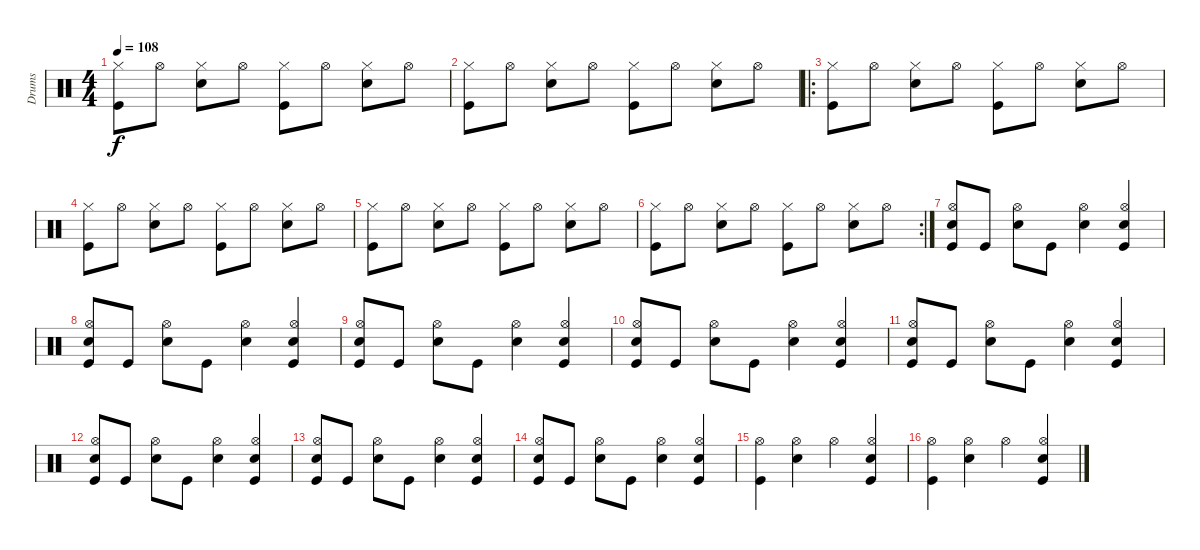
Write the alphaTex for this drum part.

\track ("Drums" "Drums") {instrument percussion}
\staff {score}
\articulation defaults
\ts (4 4)
\tempo 108
\clef neutral
\ks c
("Hi-Hat (closed)" "Kick (hit)").8{dy f} "Hi-Hat (open)".8 ("Hi-Hat (closed)" "Electric Snare (hit)").8 "Hi-Hat (open)".8 ("Hi-Hat (closed)" "Kick (hit)").8 "Hi-Hat (open)".8 ("Hi-Hat (closed)" "Electric Snare (hit)").8 "Hi-Hat (open)".8 |
("Hi-Hat (closed)" "Kick (hit)").8 "Hi-Hat (open)".8 ("Hi-Hat (closed)" "Electric Snare (hit)").8 "Hi-Hat (open)".8 ("Hi-Hat (closed)" "Kick (hit)").8 "Hi-Hat (open)".8 ("Hi-Hat (closed)" "Electric Snare (hit)").8 "Hi-Hat (open)".8 |
\ro
("Hi-Hat (closed)" "Kick (hit)").8 "Hi-Hat (open)".8 ("Hi-Hat (closed)" "Electric Snare (hit)").8 "Hi-Hat (open)".8 ("Hi-Hat (closed)" "Kick (hit)").8 "Hi-Hat (open)".8 ("Hi-Hat (closed)" "Electric Snare (hit)").8 "Hi-Hat (open)".8 |
("Hi-Hat (closed)" "Kick (hit)").8 "Hi-Hat (open)".8 ("Hi-Hat (closed)" "Electric Snare (hit)").8 "Hi-Hat (open)".8 ("Hi-Hat (closed)" "Kick (hit)").8 "Hi-Hat (open)".8 ("Hi-Hat (closed)" "Electric Snare (hit)").8 "Hi-Hat (open)".8 |
("Hi-Hat (closed)" "Kick (hit)").8 "Hi-Hat (open)".8 ("Hi-Hat (closed)" "Electric Snare (hit)").8 "Hi-Hat (open)".8 ("Hi-Hat (closed)" "Kick (hit)").8 "Hi-Hat (open)".8 ("Hi-Hat (closed)" "Electric Snare (hit)").8 "Hi-Hat (open)".8 |
\rc 2
("Hi-Hat (closed)" "Kick (hit)").8 "Hi-Hat (open)".8 ("Hi-Hat (closed)" "Electric Snare (hit)").8 "Hi-Hat (open)".8 ("Hi-Hat (closed)" "Kick (hit)").8 "Hi-Hat (open)".8 ("Hi-Hat (closed)" "Electric Snare (hit)").8 "Hi-Hat (open)".8 |
("Hi-Hat (open)" "Snare (hit) 2" "Kick (hit)").8 "Kick (hit)".8 ("Hi-Hat (open)" "Snare (hit) 2").8 "Kick (hit)".8 ("Hi-Hat (open)" "Snare (hit) 2").4 ("Hi-Hat (open)" "Snare (hit) 2" "Kick (hit)").4 |
("Hi-Hat (open)" "Snare (hit) 2" "Kick (hit)").8 "Kick (hit)".8 ("Hi-Hat (open)" "Snare (hit) 2").8 "Kick (hit)".8 ("Hi-Hat (open)" "Snare (hit) 2").4 ("Hi-Hat (open)" "Snare (hit) 2" "Kick (hit)").4 |
("Hi-Hat (open)" "Snare (hit) 2" "Kick (hit)").8 "Kick (hit)".8 ("Hi-Hat (open)" "Snare (hit) 2").8 "Kick (hit)".8 ("Hi-Hat (open)" "Snare (hit) 2").4 ("Hi-Hat (open)" "Snare (hit) 2" "Kick (hit)").4 |
("Hi-Hat (open)" "Snare (hit) 2" "Kick (hit)").8 "Kick (hit)".8 ("Hi-Hat (open)" "Snare (hit) 2").8 "Kick (hit)".8 ("Hi-Hat (open)" "Snare (hit) 2").4 ("Hi-Hat (open)" "Snare (hit) 2" "Kick (hit)").4 |
("Hi-Hat (open)" "Snare (hit) 2" "Kick (hit)").8 "Kick (hit)".8 ("Hi-Hat (open)" "Snare (hit) 2").8 "Kick (hit)".8 ("Hi-Hat (open)" "Snare (hit) 2").4 ("Hi-Hat (open)" "Snare (hit) 2" "Kick (hit)").4 |
("Hi-Hat (open)" "Snare (hit) 2" "Kick (hit)").8 "Kick (hit)".8 ("Hi-Hat (open)" "Snare (hit) 2").8 "Kick (hit)".8 ("Hi-Hat (open)" "Snare (hit) 2").4 ("Hi-Hat (open)" "Snare (hit) 2" "Kick (hit)").4 |
("Hi-Hat (open)" "Snare (hit) 2" "Kick (hit)").8 "Kick (hit)".8 ("Hi-Hat (open)" "Snare (hit) 2").8 "Kick (hit)".8 ("Hi-Hat (open)" "Snare (hit) 2").4 ("Hi-Hat (open)" "Snare (hit) 2" "Kick (hit)").4 |
("Hi-Hat (open)" "Snare (hit) 2" "Kick (hit)").8 "Kick (hit)".8 ("Hi-Hat (open)" "Snare (hit) 2").8 "Kick (hit)".8 ("Hi-Hat (open)" "Snare (hit) 2").4 ("Hi-Hat (open)" "Snare (hit) 2" "Kick (hit)").4 |
("Hi-Hat (open)" "Kick (hit)").4 ("Hi-Hat (open)" "Snare (hit) 2").4 "Hi-Hat (open)".4 ("Hi-Hat (open)" "Snare (hit) 2" "Kick (hit)").4 |
("Hi-Hat (open)" "Kick (hit)").4 ("Hi-Hat (open)" "Snare (hit) 2").4 "Hi-Hat (open)".4 ("Hi-Hat (open)" "Snare (hit) 2" "Kick (hit)").4
